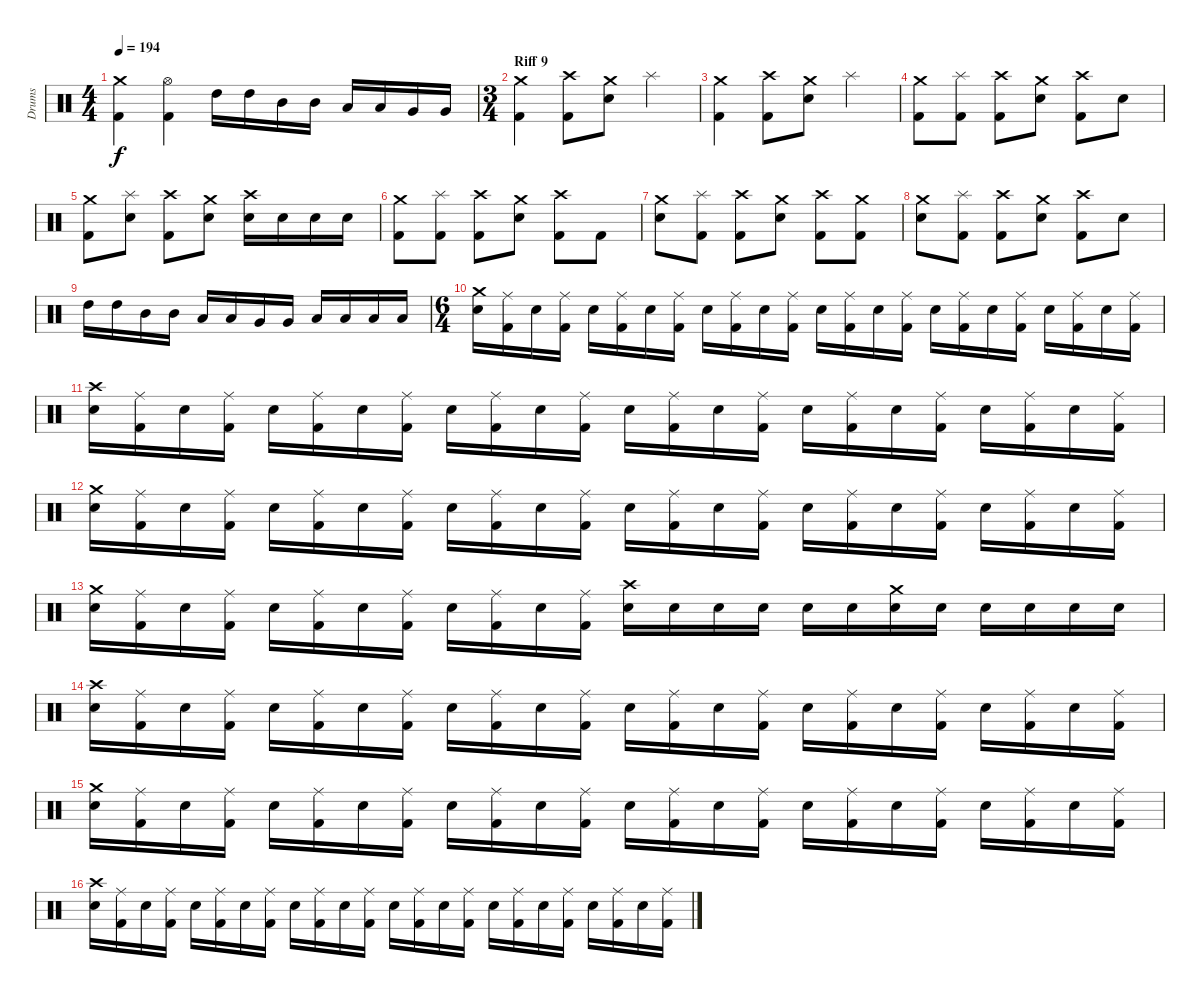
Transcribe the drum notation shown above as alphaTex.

\track ("Drums" "Drums") {instrument percussion}
\staff {score}
\articulation defaults
\ts (4 4)
\tempo 194
\clef neutral
\ks c
("Crash medium (hit)" "Kick (hit) 2").4{dy f} ("Hi-Hat (open)" "Kick (hit) 2").4 "High Tom (hit)".16 "High Tom (hit)".16 "Mid Tom (hit)".16 "Mid Tom (hit)".16 "Low Tom (hit)".16 "Low Tom (hit)".16 "Very Low Tom (hit)".16 "Very Low Tom (hit)".16 |
\ts (3 4)
\section ("" "Riff 9")
("Crash medium (hit)" "Kick (hit) 2").4 ("Crash high (hit)" "Kick (hit) 2").8 ("Crash medium (hit)" "Electric Snare (hit)").8 "Splash (hit)".4 |
("Crash medium (hit)" "Kick (hit) 2").4 ("Crash high (hit)" "Kick (hit) 2").8 ("Crash medium (hit)" "Electric Snare (hit)").8 "Splash (hit)".4 |
("Crash medium (hit)" "Kick (hit) 2").8 ("Splash (hit)" "Kick (hit) 2").8 ("Crash high (hit)" "Kick (hit) 2").8 ("Crash medium (hit)" "Electric Snare (hit)").8 ("Crash high (hit)" "Kick (hit) 2").8 "Electric Snare (hit)".8 |
("Crash medium (hit)" "Kick (hit) 2").8 ("Splash (hit)" "Electric Snare (hit)").8 ("Crash high (hit)" "Kick (hit) 2").8 ("Crash medium (hit)" "Electric Snare (hit)").8 ("Crash high (hit)" "Electric Snare (hit)").16 "Electric Snare (hit)".16 "Electric Snare (hit)".16 "Electric Snare (hit)".16 |
("Crash medium (hit)" "Kick (hit) 2").8 ("Splash (hit)" "Kick (hit) 2").8 ("Crash high (hit)" "Kick (hit) 2").8 ("Crash medium (hit)" "Electric Snare (hit)").8 ("Crash high (hit)" "Kick (hit) 2").8 "Kick (hit) 2".8 |
("Crash medium (hit)" "Electric Snare (hit)").8 ("Splash (hit)" "Kick (hit) 2").8 ("Crash high (hit)" "Kick (hit) 2").8 ("Crash medium (hit)" "Electric Snare (hit)").8 ("Crash high (hit)" "Kick (hit) 2").8 ("Crash medium (hit)" "Kick (hit) 2").8 |
("Crash medium (hit)" "Electric Snare (hit)").8 ("Splash (hit)" "Kick (hit) 2").8 ("Crash high (hit)" "Kick (hit) 2").8 ("Crash medium (hit)" "Electric Snare (hit)").8 ("Crash high (hit)" "Kick (hit) 2").8 "Electric Snare (hit)".8 |
"High Tom (hit)".16 "High Tom (hit)".16 "Mid Tom (hit)".16 "Mid Tom (hit)".16 "Low Tom (hit)".16 "Low Tom (hit)".16 "Very Low Tom (hit)".16 "Very Low Tom (hit)".16 "Low Floor Tom (hit)".16 "Low Floor Tom (hit)".16 "Low Floor Tom (hit)".16 "Low Floor Tom (hit)".16 |
\ts (6 4)
("Crash medium (hit)" "Electric Snare (hit)").16 ("Ride (middle)" "Kick (hit) 2").16 "Electric Snare (hit)".16 ("Ride (middle)" "Kick (hit) 2").16 "Electric Snare (hit)".16 ("Ride (middle)" "Kick (hit) 2").16 "Electric Snare (hit)".16 ("Ride (middle)" "Kick (hit) 2").16 "Electric Snare (hit)".16 ("Ride (middle)" "Kick (hit) 2").16 "Electric Snare (hit)".16 ("Ride (middle)" "Kick (hit) 2").16 "Electric Snare (hit)".16 ("Ride (middle)" "Kick (hit) 2").16 "Electric Snare (hit)".16 ("Ride (middle)" "Kick (hit) 2").16 "Electric Snare (hit)".16 ("Ride (middle)" "Kick (hit) 2").16 "Electric Snare (hit)".16 ("Ride (middle)" "Kick (hit) 2").16 "Electric Snare (hit)".16 ("Ride (middle)" "Kick (hit) 2").16 "Electric Snare (hit)".16 ("Ride (middle)" "Kick (hit) 2").16 |
("Crash high (hit)" "Electric Snare (hit)").16 ("Ride (middle)" "Kick (hit) 2").16 "Electric Snare (hit)".16 ("Ride (middle)" "Kick (hit) 2").16 "Electric Snare (hit)".16 ("Ride (middle)" "Kick (hit) 2").16 "Electric Snare (hit)".16 ("Ride (middle)" "Kick (hit) 2").16 "Electric Snare (hit)".16 ("Ride (middle)" "Kick (hit) 2").16 "Electric Snare (hit)".16 ("Ride (middle)" "Kick (hit) 2").16 "Electric Snare (hit)".16 ("Ride (middle)" "Kick (hit) 2").16 "Electric Snare (hit)".16 ("Ride (middle)" "Kick (hit) 2").16 "Electric Snare (hit)".16 ("Ride (middle)" "Kick (hit) 2").16 "Electric Snare (hit)".16 ("Ride (middle)" "Kick (hit) 2").16 "Electric Snare (hit)".16 ("Ride (middle)" "Kick (hit) 2").16 "Electric Snare (hit)".16 ("Ride (middle)" "Kick (hit) 2").16 |
("Crash medium (hit)" "Electric Snare (hit)").16 ("Ride (middle)" "Kick (hit) 2").16 "Electric Snare (hit)".16 ("Ride (middle)" "Kick (hit) 2").16 "Electric Snare (hit)".16 ("Ride (middle)" "Kick (hit) 2").16 "Electric Snare (hit)".16 ("Ride (middle)" "Kick (hit) 2").16 "Electric Snare (hit)".16 ("Ride (middle)" "Kick (hit) 2").16 "Electric Snare (hit)".16 ("Ride (middle)" "Kick (hit) 2").16 "Electric Snare (hit)".16 ("Ride (middle)" "Kick (hit) 2").16 "Electric Snare (hit)".16 ("Ride (middle)" "Kick (hit) 2").16 "Electric Snare (hit)".16 ("Ride (middle)" "Kick (hit) 2").16 "Electric Snare (hit)".16 ("Ride (middle)" "Kick (hit) 2").16 "Electric Snare (hit)".16 ("Ride (middle)" "Kick (hit) 2").16 "Electric Snare (hit)".16 ("Ride (middle)" "Kick (hit) 2").16 |
("Crash medium (hit)" "Electric Snare (hit)").16 ("Ride (middle)" "Kick (hit) 2").16 "Electric Snare (hit)".16 ("Ride (middle)" "Kick (hit) 2").16 "Electric Snare (hit)".16 ("Ride (middle)" "Kick (hit) 2").16 "Electric Snare (hit)".16 ("Ride (middle)" "Kick (hit) 2").16 "Electric Snare (hit)".16 ("Ride (middle)" "Kick (hit) 2").16 "Electric Snare (hit)".16 ("Ride (middle)" "Kick (hit) 2").16 ("Crash high (hit)" "Electric Snare (hit)").16 "Electric Snare (hit)".16 "Electric Snare (hit)".16 "Electric Snare (hit)".16 "Electric Snare (hit)".16 "Electric Snare (hit)".16 ("Crash medium (hit)" "Electric Snare (hit)").16 "Electric Snare (hit)".16 "Electric Snare (hit)".16 "Electric Snare (hit)".16 "Electric Snare (hit)".16 "Electric Snare (hit)".16 |
("Crash high (hit)" "Electric Snare (hit)").16 ("Ride (middle)" "Kick (hit) 2").16 "Electric Snare (hit)".16 ("Ride (middle)" "Kick (hit) 2").16 "Electric Snare (hit)".16 ("Ride (middle)" "Kick (hit) 2").16 "Electric Snare (hit)".16 ("Ride (middle)" "Kick (hit) 2").16 "Electric Snare (hit)".16 ("Ride (middle)" "Kick (hit) 2").16 "Electric Snare (hit)".16 ("Ride (middle)" "Kick (hit) 2").16 "Electric Snare (hit)".16 ("Ride (middle)" "Kick (hit) 2").16 "Electric Snare (hit)".16 ("Ride (middle)" "Kick (hit) 2").16 "Electric Snare (hit)".16 ("Ride (middle)" "Kick (hit) 2").16 "Electric Snare (hit)".16 ("Ride (middle)" "Kick (hit) 2").16 "Electric Snare (hit)".16 ("Ride (middle)" "Kick (hit) 2").16 "Electric Snare (hit)".16 ("Ride (middle)" "Kick (hit) 2").16 |
("Crash medium (hit)" "Electric Snare (hit)").16 ("Ride (middle)" "Kick (hit) 2").16 "Electric Snare (hit)".16 ("Ride (middle)" "Kick (hit) 2").16 "Electric Snare (hit)".16 ("Ride (middle)" "Kick (hit) 2").16 "Electric Snare (hit)".16 ("Ride (middle)" "Kick (hit) 2").16 "Electric Snare (hit)".16 ("Ride (middle)" "Kick (hit) 2").16 "Electric Snare (hit)".16 ("Ride (middle)" "Kick (hit) 2").16 "Electric Snare (hit)".16 ("Ride (middle)" "Kick (hit) 2").16 "Electric Snare (hit)".16 ("Ride (middle)" "Kick (hit) 2").16 "Electric Snare (hit)".16 ("Ride (middle)" "Kick (hit) 2").16 "Electric Snare (hit)".16 ("Ride (middle)" "Kick (hit) 2").16 "Electric Snare (hit)".16 ("Ride (middle)" "Kick (hit) 2").16 "Electric Snare (hit)".16 ("Ride (middle)" "Kick (hit) 2").16 |
("Crash high (hit)" "Electric Snare (hit)").16 ("Ride (middle)" "Kick (hit) 2").16 "Electric Snare (hit)".16 ("Ride (middle)" "Kick (hit) 2").16 "Electric Snare (hit)".16 ("Ride (middle)" "Kick (hit) 2").16 "Electric Snare (hit)".16 ("Ride (middle)" "Kick (hit) 2").16 "Electric Snare (hit)".16 ("Ride (middle)" "Kick (hit) 2").16 "Electric Snare (hit)".16 ("Ride (middle)" "Kick (hit) 2").16 "Electric Snare (hit)".16 ("Ride (middle)" "Kick (hit) 2").16 "Electric Snare (hit)".16 ("Ride (middle)" "Kick (hit) 2").16 "Electric Snare (hit)".16 ("Ride (middle)" "Kick (hit) 2").16 "Electric Snare (hit)".16 ("Ride (middle)" "Kick (hit) 2").16 "Electric Snare (hit)".16 ("Ride (middle)" "Kick (hit) 2").16 "Electric Snare (hit)".16 ("Ride (middle)" "Kick (hit) 2").16
